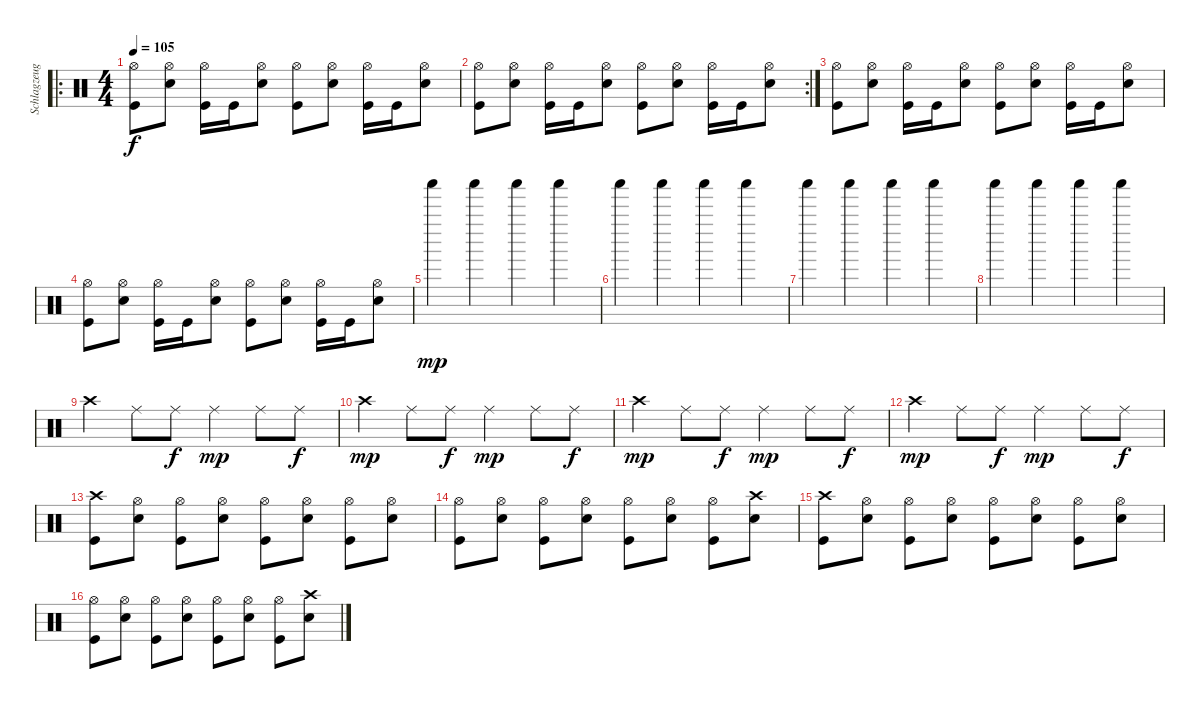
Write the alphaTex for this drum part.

\track ("Schlagzeug" "Schlagzeug") {instrument percussion}
\staff {score}
\articulation defaults
\ro
\ts (4 4)
\tempo 105
\clef neutral
\ks c
("Hi-Hat (open)" "Kick (hit)").8{dy f} ("Hi-Hat (open)" "Snare (hit) 2").8 ("Hi-Hat (open)" "Kick (hit)").16 "Kick (hit)".16 ("Hi-Hat (open)" "Snare (hit) 2").8 ("Hi-Hat (open)" "Kick (hit)").8 ("Hi-Hat (open)" "Snare (hit) 2").8 ("Hi-Hat (open)" "Kick (hit)").16 "Kick (hit)".16 ("Hi-Hat (open)" "Snare (hit) 2").8 |
\rc 2
("Hi-Hat (open)" "Kick (hit)").8 ("Hi-Hat (open)" "Snare (hit) 2").8 ("Hi-Hat (open)" "Kick (hit)").16 "Kick (hit)".16 ("Hi-Hat (open)" "Snare (hit) 2").8 ("Hi-Hat (open)" "Kick (hit)").8 ("Hi-Hat (open)" "Snare (hit) 2").8 ("Hi-Hat (open)" "Kick (hit)").16 "Kick (hit)".16 ("Hi-Hat (open)" "Snare (hit) 2").8 |
("Hi-Hat (open)" "Kick (hit)").8 ("Hi-Hat (open)" "Snare (hit) 2").8 ("Hi-Hat (open)" "Kick (hit)").16 "Kick (hit)".16 ("Hi-Hat (open)" "Snare (hit) 2").8 ("Hi-Hat (open)" "Kick (hit)").8 ("Hi-Hat (open)" "Snare (hit) 2").8 ("Hi-Hat (open)" "Kick (hit)").16 "Kick (hit)".16 ("Hi-Hat (open)" "Snare (hit) 2").8 |
("Hi-Hat (open)" "Kick (hit)").8 ("Hi-Hat (open)" "Snare (hit) 2").8 ("Hi-Hat (open)" "Kick (hit)").16 "Kick (hit)".16 ("Hi-Hat (open)" "Snare (hit) 2").8 ("Hi-Hat (open)" "Kick (hit)").8 ("Hi-Hat (open)" "Snare (hit) 2").8 ("Hi-Hat (open)" "Kick (hit)").16 "Kick (hit)".16 ("Hi-Hat (open)" "Snare (hit) 2").8 |
"Shaker (hit)".4{dy mp} "Shaker (hit)".4 "Shaker (hit)".4 "Shaker (hit)".4 |
"Shaker (hit)".4 "Shaker (hit)".4 "Shaker (hit)".4 "Shaker (hit)".4 |
"Shaker (hit)".4 "Shaker (hit)".4 "Shaker (hit)".4 "Shaker (hit)".4 |
"Shaker (hit)".4 "Shaker (hit)".4 "Shaker (hit)".4 "Shaker (hit)".4 |
"Crash high (hit)".4 "Ride (middle)".8 "Ride (middle)".8{dy f} "Ride (middle)".4{dy mp} "Ride (middle)".8 "Ride (middle)".8{dy f} |
"Crash high (hit)".4{dy mp} "Ride (middle)".8 "Ride (middle)".8{dy f} "Ride (middle)".4{dy mp} "Ride (middle)".8 "Ride (middle)".8{dy f} |
"Crash high (hit)".4{dy mp} "Ride (middle)".8 "Ride (middle)".8{dy f} "Ride (middle)".4{dy mp} "Ride (middle)".8 "Ride (middle)".8{dy f} |
"Crash high (hit)".4{dy mp} "Ride (middle)".8 "Ride (middle)".8{dy f} "Ride (middle)".4{dy mp} "Ride (middle)".8 "Ride (middle)".8{dy f} |
("Crash high (hit)" "Kick (hit)").8 ("Hi-Hat (open)" "Snare (hit) 2").8 ("Hi-Hat (open)" "Kick (hit)").8 ("Hi-Hat (open)" "Snare (hit) 2").8 ("Hi-Hat (open)" "Kick (hit)").8 ("Hi-Hat (open)" "Snare (hit) 2").8 ("Hi-Hat (open)" "Kick (hit)").8 ("Hi-Hat (open)" "Snare (hit) 2").8 |
("Hi-Hat (open)" "Kick (hit)").8 ("Hi-Hat (open)" "Snare (hit) 2").8 ("Hi-Hat (open)" "Kick (hit)").8 ("Hi-Hat (open)" "Snare (hit) 2").8 ("Hi-Hat (open)" "Kick (hit)").8 ("Hi-Hat (open)" "Snare (hit) 2").8 ("Hi-Hat (open)" "Kick (hit)").8 ("Crash high (hit)" "Snare (hit) 2").8 |
("Crash high (hit)" "Kick (hit)").8 ("Hi-Hat (open)" "Snare (hit) 2").8 ("Hi-Hat (open)" "Kick (hit)").8 ("Hi-Hat (open)" "Snare (hit) 2").8 ("Hi-Hat (open)" "Kick (hit)").8 ("Hi-Hat (open)" "Snare (hit) 2").8 ("Hi-Hat (open)" "Kick (hit)").8 ("Hi-Hat (open)" "Snare (hit) 2").8 |
("Hi-Hat (open)" "Kick (hit)").8 ("Hi-Hat (open)" "Snare (hit) 2").8 ("Hi-Hat (open)" "Kick (hit)").8 ("Hi-Hat (open)" "Snare (hit) 2").8 ("Hi-Hat (open)" "Kick (hit)").8 ("Hi-Hat (open)" "Snare (hit) 2").8 ("Hi-Hat (open)" "Kick (hit)").8 ("Crash high (hit)" "Snare (hit) 2").8
